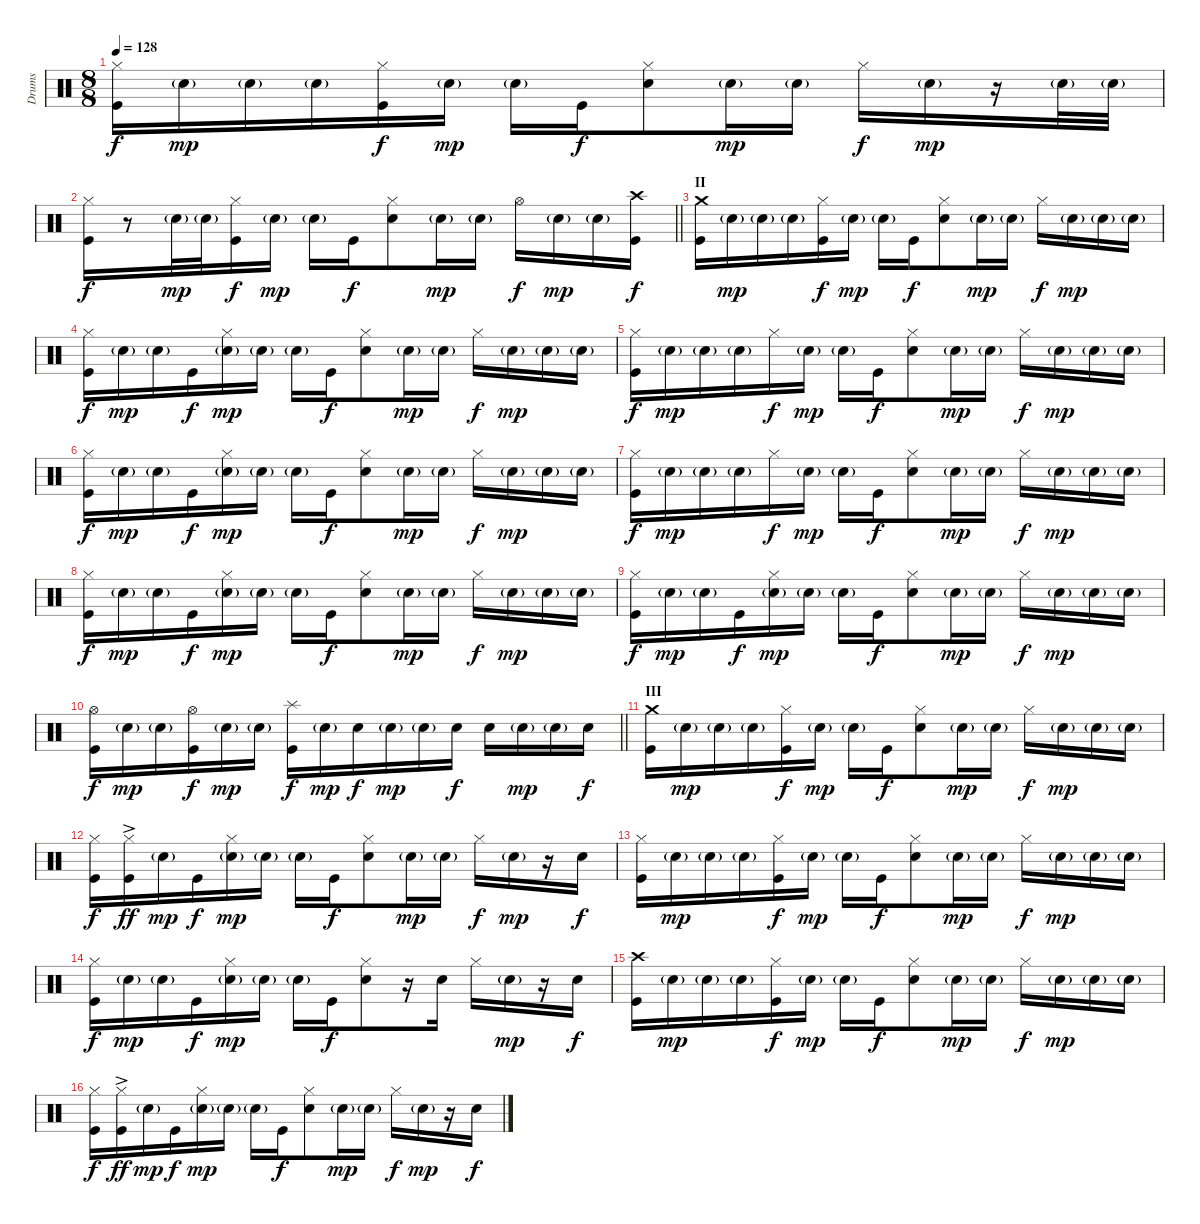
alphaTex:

\track ("Drums" "Drums") {instrument percussion}
\staff {score}
\articulation defaults
\ts (8 8)
\tempo 128
\clef neutral
\ks c
("Kick (hit)" "Hi-Hat (closed)").16{dy f} "Electric Snare (hit)"{g}.16{dy mp} "Electric Snare (hit)"{g}.16 "Electric Snare (hit)"{g}.16 ("Kick (hit)" "Hi-Hat (closed)").16{dy f} "Electric Snare (hit)"{g}.16{dy mp} "Electric Snare (hit)"{g}.16 "Kick (hit)".16{dy f} ("Electric Snare (hit)" "Hi-Hat (closed)").8 "Electric Snare (hit)"{g}.16{dy mp} "Electric Snare (hit)"{g}.16 "Hi-Hat (closed)".16{dy f} "Electric Snare (hit)"{g}.16{dy mp} r.16 "Electric Snare (hit)"{g}.32 "Electric Snare (hit)"{g}.32 |
\barLineRight lightlight
("Kick (hit)" "Hi-Hat (closed)").16{dy f} r.8 "Electric Snare (hit)"{g}.32{dy mp} "Electric Snare (hit)"{g}.32 ("Kick (hit)" "Hi-Hat (closed)").16{dy f} "Electric Snare (hit)"{g}.16{dy mp} "Electric Snare (hit)"{g}.16 "Kick (hit)".16{dy f} ("Electric Snare (hit)" "Hi-Hat (closed)").8 "Electric Snare (hit)"{g}.16{dy mp} "Electric Snare (hit)"{g}.16 "Hi-Hat (open)".16{dy f} "Electric Snare (hit)"{g}.16{dy mp} "Electric Snare (hit)"{g}.16 ("Kick (hit)" "Crash high (hit)").16{dy f} |
\section ("" "II")
("Kick (hit)" "Crash medium (hit)").16 "Electric Snare (hit)"{g}.16{dy mp} "Electric Snare (hit)"{g}.16 "Electric Snare (hit)"{g}.16 ("Kick (hit)" "Hi-Hat (closed)").16{dy f} "Electric Snare (hit)"{g}.16{dy mp} "Electric Snare (hit)"{g}.16 "Kick (hit)".16{dy f} ("Electric Snare (hit)" "Hi-Hat (closed)").8 "Electric Snare (hit)"{g}.16{dy mp} "Electric Snare (hit)"{g}.16 "Hi-Hat (closed)".16{dy f} "Electric Snare (hit)"{g}.16{dy mp} "Electric Snare (hit)"{g}.16 "Electric Snare (hit)"{g}.16 |
("Kick (hit)" "Hi-Hat (closed)").16{dy f} "Electric Snare (hit)"{g}.16{dy mp} "Electric Snare (hit)"{g}.16 "Kick (hit)".16{dy f} ("Electric Snare (hit)"{g} "Hi-Hat (closed)").16{dy mp} "Electric Snare (hit)"{g}.16 "Electric Snare (hit)"{g}.16 "Kick (hit)".16{dy f} ("Electric Snare (hit)" "Hi-Hat (closed)").8 "Electric Snare (hit)"{g}.16{dy mp} "Electric Snare (hit)"{g}.16 "Hi-Hat (closed)".16{dy f} "Electric Snare (hit)"{g}.16{dy mp} "Electric Snare (hit)"{g}.16 "Electric Snare (hit)"{g}.16 |
("Kick (hit)" "Hi-Hat (closed)").16{dy f} "Electric Snare (hit)"{g}.16{dy mp} "Electric Snare (hit)"{g}.16 "Electric Snare (hit)"{g}.16 "Hi-Hat (closed)".16{dy f} "Electric Snare (hit)"{g}.16{dy mp} "Electric Snare (hit)"{g}.16 "Kick (hit)".16{dy f} ("Electric Snare (hit)" "Hi-Hat (closed)").8 "Electric Snare (hit)"{g}.16{dy mp} "Electric Snare (hit)"{g}.16 "Hi-Hat (closed)".16{dy f} "Electric Snare (hit)"{g}.16{dy mp} "Electric Snare (hit)"{g}.16 "Electric Snare (hit)"{g}.16 |
("Kick (hit)" "Hi-Hat (closed)").16{dy f} "Electric Snare (hit)"{g}.16{dy mp} "Electric Snare (hit)"{g}.16 "Kick (hit)".16{dy f} ("Electric Snare (hit)"{g} "Hi-Hat (closed)").16{dy mp} "Electric Snare (hit)"{g}.16 "Electric Snare (hit)"{g}.16 "Kick (hit)".16{dy f} ("Electric Snare (hit)" "Hi-Hat (closed)").8 "Electric Snare (hit)"{g}.16{dy mp} "Electric Snare (hit)"{g}.16 "Hi-Hat (closed)".16{dy f} "Electric Snare (hit)"{g}.16{dy mp} "Electric Snare (hit)"{g}.16 "Electric Snare (hit)"{g}.16 |
("Kick (hit)" "Hi-Hat (closed)").16{dy f} "Electric Snare (hit)"{g}.16{dy mp} "Electric Snare (hit)"{g}.16 "Electric Snare (hit)"{g}.16 "Hi-Hat (closed)".16{dy f} "Electric Snare (hit)"{g}.16{dy mp} "Electric Snare (hit)"{g}.16 "Kick (hit)".16{dy f} ("Electric Snare (hit)" "Hi-Hat (closed)").8 "Electric Snare (hit)"{g}.16{dy mp} "Electric Snare (hit)"{g}.16 "Hi-Hat (closed)".16{dy f} "Electric Snare (hit)"{g}.16{dy mp} "Electric Snare (hit)"{g}.16 "Electric Snare (hit)"{g}.16 |
("Kick (hit)" "Hi-Hat (closed)").16{dy f} "Electric Snare (hit)"{g}.16{dy mp} "Electric Snare (hit)"{g}.16 "Kick (hit)".16{dy f} ("Electric Snare (hit)"{g} "Hi-Hat (closed)").16{dy mp} "Electric Snare (hit)"{g}.16 "Electric Snare (hit)"{g}.16 "Kick (hit)".16{dy f} ("Electric Snare (hit)" "Hi-Hat (closed)").8 "Electric Snare (hit)"{g}.16{dy mp} "Electric Snare (hit)"{g}.16 "Hi-Hat (closed)".16{dy f} "Electric Snare (hit)"{g}.16{dy mp} "Electric Snare (hit)"{g}.16 "Electric Snare (hit)"{g}.16 |
("Kick (hit)" "Hi-Hat (closed)").16{dy f} "Electric Snare (hit)"{g}.16{dy mp} "Electric Snare (hit)"{g}.16 "Kick (hit)".16{dy f} ("Electric Snare (hit)"{g} "Hi-Hat (closed)").16{dy mp} "Electric Snare (hit)"{g}.16 "Electric Snare (hit)"{g}.16 "Kick (hit)".16{dy f} ("Electric Snare (hit)" "Hi-Hat (closed)").8 "Electric Snare (hit)"{g}.16{dy mp} "Electric Snare (hit)"{g}.16 "Hi-Hat (closed)".16{dy f} "Electric Snare (hit)"{g}.16{dy mp} "Electric Snare (hit)"{g}.16 "Electric Snare (hit)"{g}.16 |
\barLineRight lightlight
("Kick (hit)" "Hi-Hat (open)").16{dy f} "Electric Snare (hit)"{g}.16{dy mp} "Electric Snare (hit)"{g}.16 ("Kick (hit)" "Hi-Hat (open)").16{dy f} "Electric Snare (hit)"{g}.16{dy mp} "Electric Snare (hit)"{g}.16 ("Kick (hit)" "Splash (hit)").16{dy f} "Electric Snare (hit)"{g}.16{dy mp} "Electric Snare (hit)".16{dy f} "Electric Snare (hit)"{g}.16{dy mp} "Electric Snare (hit)"{g}.16 "Electric Snare (hit)".16{dy f} "Electric Snare (hit)".16 "Electric Snare (hit)"{g}.16{dy mp} "Electric Snare (hit)"{g}.16 "Electric Snare (hit)".16{dy f} |
\section ("" "III")
("Kick (hit)" "Crash medium (hit)").16 "Electric Snare (hit)"{g}.16{dy mp} "Electric Snare (hit)"{g}.16 "Electric Snare (hit)"{g}.16 ("Kick (hit)" "Hi-Hat (closed)").16{dy f} "Electric Snare (hit)"{g}.16{dy mp} "Electric Snare (hit)"{g}.16 "Kick (hit)".16{dy f} ("Electric Snare (hit)" "Hi-Hat (closed)").8 "Electric Snare (hit)"{g}.16{dy mp} "Electric Snare (hit)"{g}.16 "Hi-Hat (closed)".16{dy f} "Electric Snare (hit)"{g}.16{dy mp} "Electric Snare (hit)"{g}.16 "Electric Snare (hit)"{g}.16 |
("Kick (hit)" "Hi-Hat (closed)").16{dy f} ("Kick (hit)" "Hi-Hat (closed)"{ac}).16{dy ff} "Electric Snare (hit)"{g}.16{dy mp} "Kick (hit)".16{dy f} ("Electric Snare (hit)"{g} "Hi-Hat (closed)").16{dy mp} "Electric Snare (hit)"{g}.16 "Electric Snare (hit)"{g}.16 "Kick (hit)".16{dy f} ("Electric Snare (hit)" "Hi-Hat (closed)").8 "Electric Snare (hit)"{g}.16{dy mp} "Electric Snare (hit)"{g}.16 "Hi-Hat (closed)".16{dy f} "Electric Snare (hit)"{g}.16{dy mp} r.16 "Electric Snare (hit)".16{dy f} |
("Kick (hit)" "Hi-Hat (closed)").16 "Electric Snare (hit)"{g}.16{dy mp} "Electric Snare (hit)"{g}.16 "Electric Snare (hit)"{g}.16 ("Kick (hit)" "Hi-Hat (closed)").16{dy f} "Electric Snare (hit)"{g}.16{dy mp} "Electric Snare (hit)"{g}.16 "Kick (hit)".16{dy f} ("Electric Snare (hit)" "Hi-Hat (closed)").8 "Electric Snare (hit)"{g}.16{dy mp} "Electric Snare (hit)"{g}.16 "Hi-Hat (closed)".16{dy f} "Electric Snare (hit)"{g}.16{dy mp} "Electric Snare (hit)"{g}.16 "Electric Snare (hit)"{g}.16 |
("Kick (hit)" "Hi-Hat (closed)").16{dy f} "Electric Snare (hit)"{g}.16{dy mp} "Electric Snare (hit)"{g}.16 "Kick (hit)".16{dy f} ("Electric Snare (hit)"{g} "Hi-Hat (closed)").16{dy mp} "Electric Snare (hit)"{g}.16 "Electric Snare (hit)"{g}.16 "Kick (hit)".16{dy f} ("Electric Snare (hit)" "Hi-Hat (closed)").8 r.16 "Electric Snare (hit)".16 "Hi-Hat (closed)".16 "Electric Snare (hit)"{g}.16{dy mp} r.16 "Electric Snare (hit)".16{dy f} |
("Kick (hit)" "Crash high (hit)").16 "Electric Snare (hit)"{g}.16{dy mp} "Electric Snare (hit)"{g}.16 "Electric Snare (hit)"{g}.16 ("Kick (hit)" "Hi-Hat (closed)").16{dy f} "Electric Snare (hit)"{g}.16{dy mp} "Electric Snare (hit)"{g}.16 "Kick (hit)".16{dy f} ("Electric Snare (hit)" "Hi-Hat (closed)").8 "Electric Snare (hit)"{g}.16{dy mp} "Electric Snare (hit)"{g}.16 "Hi-Hat (closed)".16{dy f} "Electric Snare (hit)"{g}.16{dy mp} "Electric Snare (hit)"{g}.16 "Electric Snare (hit)"{g}.16 |
("Kick (hit)" "Hi-Hat (closed)").16{dy f} ("Kick (hit)" "Hi-Hat (closed)"{ac}).16{dy ff} "Electric Snare (hit)"{g}.16{dy mp} "Kick (hit)".16{dy f} ("Electric Snare (hit)"{g} "Hi-Hat (closed)").16{dy mp} "Electric Snare (hit)"{g}.16 "Electric Snare (hit)"{g}.16 "Kick (hit)".16{dy f} ("Electric Snare (hit)" "Hi-Hat (closed)").8 "Electric Snare (hit)"{g}.16{dy mp} "Electric Snare (hit)"{g}.16 "Hi-Hat (closed)".16{dy f} "Electric Snare (hit)"{g}.16{dy mp} r.16 "Electric Snare (hit)".16{dy f}
